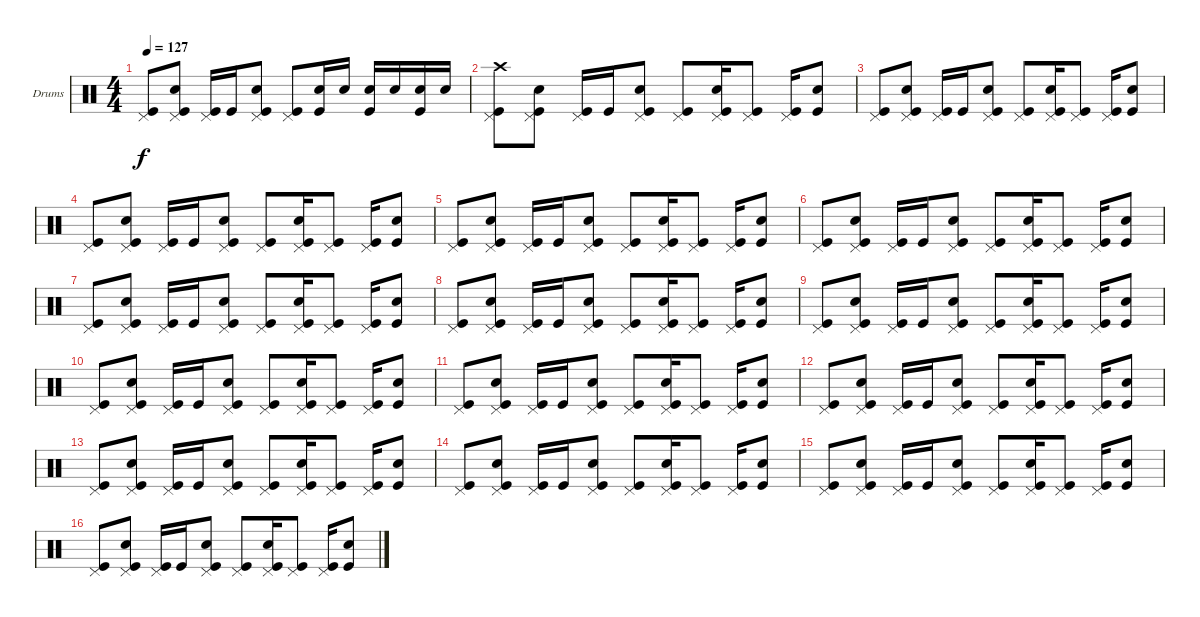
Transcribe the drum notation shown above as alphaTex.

\bracketExtendMode groupsimilarinstruments
\firstSystemTrackNameOrientation horizontal
\otherSystemsTrackNameOrientation horizontal
\track ("Drumkit" "Drums") {instrument percussion}
\staff {score}
\articulation defaults
\ts (4 4)
\tempo 127
\clef neutral
\ks c
("Pedal Hi-Hat (hit)" "Kick (hit)").8{dy f} ("Pedal Hi-Hat (hit)" "Snare (hit) 2" "Kick (hit)").8 ("Pedal Hi-Hat (hit)" "Kick (hit)").16 "Kick (hit)".16 ("Pedal Hi-Hat (hit)" "Snare (hit) 2" "Kick (hit)").8 ("Pedal Hi-Hat (hit)" "Kick (hit)").8 ("Snare (hit) 2" "Kick (hit)").16 "Snare (hit) 2".16 ("Snare (hit) 2" "Kick (hit)").16 "Snare (hit) 2".16 ("Snare (hit) 2" "Kick (hit)").16 "Snare (hit) 2".16 |
("Pedal Hi-Hat (hit)" "Crash high (hit)" "Kick (hit)").8 ("Pedal Hi-Hat (hit)" "Snare (hit) 2" "Kick (hit)").8 ("Pedal Hi-Hat (hit)" "Kick (hit)").16 "Kick (hit)".16 ("Pedal Hi-Hat (hit)" "Snare (hit) 2" "Kick (hit)").8 ("Pedal Hi-Hat (hit)" "Kick (hit)").8 ("Pedal Hi-Hat (hit)" "Snare (hit) 2" "Kick (hit)").16 ("Pedal Hi-Hat (hit)" "Kick (hit)").8 ("Pedal Hi-Hat (hit)" "Kick (hit)").16 ("Snare (hit) 2" "Kick (hit)").8 |
("Pedal Hi-Hat (hit)" "Kick (hit)").8 ("Pedal Hi-Hat (hit)" "Snare (hit) 2" "Kick (hit)").8 ("Pedal Hi-Hat (hit)" "Kick (hit)").16 "Kick (hit)".16 ("Pedal Hi-Hat (hit)" "Snare (hit) 2" "Kick (hit)").8 ("Pedal Hi-Hat (hit)" "Kick (hit)").8 ("Pedal Hi-Hat (hit)" "Snare (hit) 2" "Kick (hit)").16 ("Pedal Hi-Hat (hit)" "Kick (hit)").8 ("Pedal Hi-Hat (hit)" "Kick (hit)").16 ("Snare (hit) 2" "Kick (hit)").8 |
("Pedal Hi-Hat (hit)" "Kick (hit)").8 ("Pedal Hi-Hat (hit)" "Snare (hit) 2" "Kick (hit)").8 ("Pedal Hi-Hat (hit)" "Kick (hit)").16 "Kick (hit)".16 ("Pedal Hi-Hat (hit)" "Snare (hit) 2" "Kick (hit)").8 ("Pedal Hi-Hat (hit)" "Kick (hit)").8 ("Pedal Hi-Hat (hit)" "Snare (hit) 2" "Kick (hit)").16 ("Pedal Hi-Hat (hit)" "Kick (hit)").8 ("Pedal Hi-Hat (hit)" "Kick (hit)").16 ("Snare (hit) 2" "Kick (hit)").8 |
("Pedal Hi-Hat (hit)" "Kick (hit)").8 ("Pedal Hi-Hat (hit)" "Snare (hit) 2" "Kick (hit)").8 ("Pedal Hi-Hat (hit)" "Kick (hit)").16 "Kick (hit)".16 ("Pedal Hi-Hat (hit)" "Snare (hit) 2" "Kick (hit)").8 ("Pedal Hi-Hat (hit)" "Kick (hit)").8 ("Pedal Hi-Hat (hit)" "Snare (hit) 2" "Kick (hit)").16 ("Pedal Hi-Hat (hit)" "Kick (hit)").8 ("Pedal Hi-Hat (hit)" "Kick (hit)").16 ("Snare (hit) 2" "Kick (hit)").8 |
("Pedal Hi-Hat (hit)" "Kick (hit)").8 ("Pedal Hi-Hat (hit)" "Snare (hit) 2" "Kick (hit)").8 ("Pedal Hi-Hat (hit)" "Kick (hit)").16 "Kick (hit)".16 ("Pedal Hi-Hat (hit)" "Snare (hit) 2" "Kick (hit)").8 ("Pedal Hi-Hat (hit)" "Kick (hit)").8 ("Pedal Hi-Hat (hit)" "Snare (hit) 2" "Kick (hit)").16 ("Pedal Hi-Hat (hit)" "Kick (hit)").8 ("Pedal Hi-Hat (hit)" "Kick (hit)").16 ("Snare (hit) 2" "Kick (hit)").8 |
("Pedal Hi-Hat (hit)" "Kick (hit)").8 ("Pedal Hi-Hat (hit)" "Snare (hit) 2" "Kick (hit)").8 ("Pedal Hi-Hat (hit)" "Kick (hit)").16 "Kick (hit)".16 ("Pedal Hi-Hat (hit)" "Snare (hit) 2" "Kick (hit)").8 ("Pedal Hi-Hat (hit)" "Kick (hit)").8 ("Pedal Hi-Hat (hit)" "Snare (hit) 2" "Kick (hit)").16 ("Pedal Hi-Hat (hit)" "Kick (hit)").8 ("Pedal Hi-Hat (hit)" "Kick (hit)").16 ("Snare (hit) 2" "Kick (hit)").8 |
("Pedal Hi-Hat (hit)" "Kick (hit)").8 ("Pedal Hi-Hat (hit)" "Snare (hit) 2" "Kick (hit)").8 ("Pedal Hi-Hat (hit)" "Kick (hit)").16 "Kick (hit)".16 ("Pedal Hi-Hat (hit)" "Snare (hit) 2" "Kick (hit)").8 ("Pedal Hi-Hat (hit)" "Kick (hit)").8 ("Pedal Hi-Hat (hit)" "Snare (hit) 2" "Kick (hit)").16 ("Pedal Hi-Hat (hit)" "Kick (hit)").8 ("Pedal Hi-Hat (hit)" "Kick (hit)").16 ("Snare (hit) 2" "Kick (hit)").8 |
("Pedal Hi-Hat (hit)" "Kick (hit)").8 ("Pedal Hi-Hat (hit)" "Snare (hit) 2" "Kick (hit)").8 ("Pedal Hi-Hat (hit)" "Kick (hit)").16 "Kick (hit)".16 ("Pedal Hi-Hat (hit)" "Snare (hit) 2" "Kick (hit)").8 ("Pedal Hi-Hat (hit)" "Kick (hit)").8 ("Pedal Hi-Hat (hit)" "Snare (hit) 2" "Kick (hit)").16 ("Pedal Hi-Hat (hit)" "Kick (hit)").8 ("Pedal Hi-Hat (hit)" "Kick (hit)").16 ("Snare (hit) 2" "Kick (hit)").8 |
("Pedal Hi-Hat (hit)" "Kick (hit)").8 ("Pedal Hi-Hat (hit)" "Snare (hit) 2" "Kick (hit)").8 ("Pedal Hi-Hat (hit)" "Kick (hit)").16 "Kick (hit)".16 ("Pedal Hi-Hat (hit)" "Snare (hit) 2" "Kick (hit)").8 ("Pedal Hi-Hat (hit)" "Kick (hit)").8 ("Pedal Hi-Hat (hit)" "Snare (hit) 2" "Kick (hit)").16 ("Pedal Hi-Hat (hit)" "Kick (hit)").8 ("Pedal Hi-Hat (hit)" "Kick (hit)").16 ("Snare (hit) 2" "Kick (hit)").8 |
("Pedal Hi-Hat (hit)" "Kick (hit)").8 ("Pedal Hi-Hat (hit)" "Snare (hit) 2" "Kick (hit)").8 ("Pedal Hi-Hat (hit)" "Kick (hit)").16 "Kick (hit)".16 ("Pedal Hi-Hat (hit)" "Snare (hit) 2" "Kick (hit)").8 ("Pedal Hi-Hat (hit)" "Kick (hit)").8 ("Pedal Hi-Hat (hit)" "Snare (hit) 2" "Kick (hit)").16 ("Pedal Hi-Hat (hit)" "Kick (hit)").8 ("Pedal Hi-Hat (hit)" "Kick (hit)").16 ("Snare (hit) 2" "Kick (hit)").8 |
("Pedal Hi-Hat (hit)" "Kick (hit)").8 ("Pedal Hi-Hat (hit)" "Snare (hit) 2" "Kick (hit)").8 ("Pedal Hi-Hat (hit)" "Kick (hit)").16 "Kick (hit)".16 ("Pedal Hi-Hat (hit)" "Snare (hit) 2" "Kick (hit)").8 ("Pedal Hi-Hat (hit)" "Kick (hit)").8 ("Pedal Hi-Hat (hit)" "Snare (hit) 2" "Kick (hit)").16 ("Pedal Hi-Hat (hit)" "Kick (hit)").8 ("Pedal Hi-Hat (hit)" "Kick (hit)").16 ("Snare (hit) 2" "Kick (hit)").8 |
("Pedal Hi-Hat (hit)" "Kick (hit)").8 ("Pedal Hi-Hat (hit)" "Snare (hit) 2" "Kick (hit)").8 ("Pedal Hi-Hat (hit)" "Kick (hit)").16 "Kick (hit)".16 ("Pedal Hi-Hat (hit)" "Snare (hit) 2" "Kick (hit)").8 ("Pedal Hi-Hat (hit)" "Kick (hit)").8 ("Pedal Hi-Hat (hit)" "Snare (hit) 2" "Kick (hit)").16 ("Pedal Hi-Hat (hit)" "Kick (hit)").8 ("Pedal Hi-Hat (hit)" "Kick (hit)").16 ("Snare (hit) 2" "Kick (hit)").8 |
("Pedal Hi-Hat (hit)" "Kick (hit)").8 ("Pedal Hi-Hat (hit)" "Snare (hit) 2" "Kick (hit)").8 ("Pedal Hi-Hat (hit)" "Kick (hit)").16 "Kick (hit)".16 ("Pedal Hi-Hat (hit)" "Snare (hit) 2" "Kick (hit)").8 ("Pedal Hi-Hat (hit)" "Kick (hit)").8 ("Pedal Hi-Hat (hit)" "Snare (hit) 2" "Kick (hit)").16 ("Pedal Hi-Hat (hit)" "Kick (hit)").8 ("Pedal Hi-Hat (hit)" "Kick (hit)").16 ("Snare (hit) 2" "Kick (hit)").8 |
("Pedal Hi-Hat (hit)" "Kick (hit)").8 ("Pedal Hi-Hat (hit)" "Snare (hit) 2" "Kick (hit)").8 ("Pedal Hi-Hat (hit)" "Kick (hit)").16 "Kick (hit)".16 ("Pedal Hi-Hat (hit)" "Snare (hit) 2" "Kick (hit)").8 ("Pedal Hi-Hat (hit)" "Kick (hit)").8 ("Pedal Hi-Hat (hit)" "Snare (hit) 2" "Kick (hit)").16 ("Pedal Hi-Hat (hit)" "Kick (hit)").8 ("Pedal Hi-Hat (hit)" "Kick (hit)").16 ("Snare (hit) 2" "Kick (hit)").8 |
("Pedal Hi-Hat (hit)" "Kick (hit)").8 ("Pedal Hi-Hat (hit)" "Snare (hit) 2" "Kick (hit)").8 ("Pedal Hi-Hat (hit)" "Kick (hit)").16 "Kick (hit)".16 ("Pedal Hi-Hat (hit)" "Snare (hit) 2" "Kick (hit)").8 ("Pedal Hi-Hat (hit)" "Kick (hit)").8 ("Pedal Hi-Hat (hit)" "Snare (hit) 2" "Kick (hit)").16 ("Pedal Hi-Hat (hit)" "Kick (hit)").8 ("Pedal Hi-Hat (hit)" "Kick (hit)").16 ("Snare (hit) 2" "Kick (hit)").8
